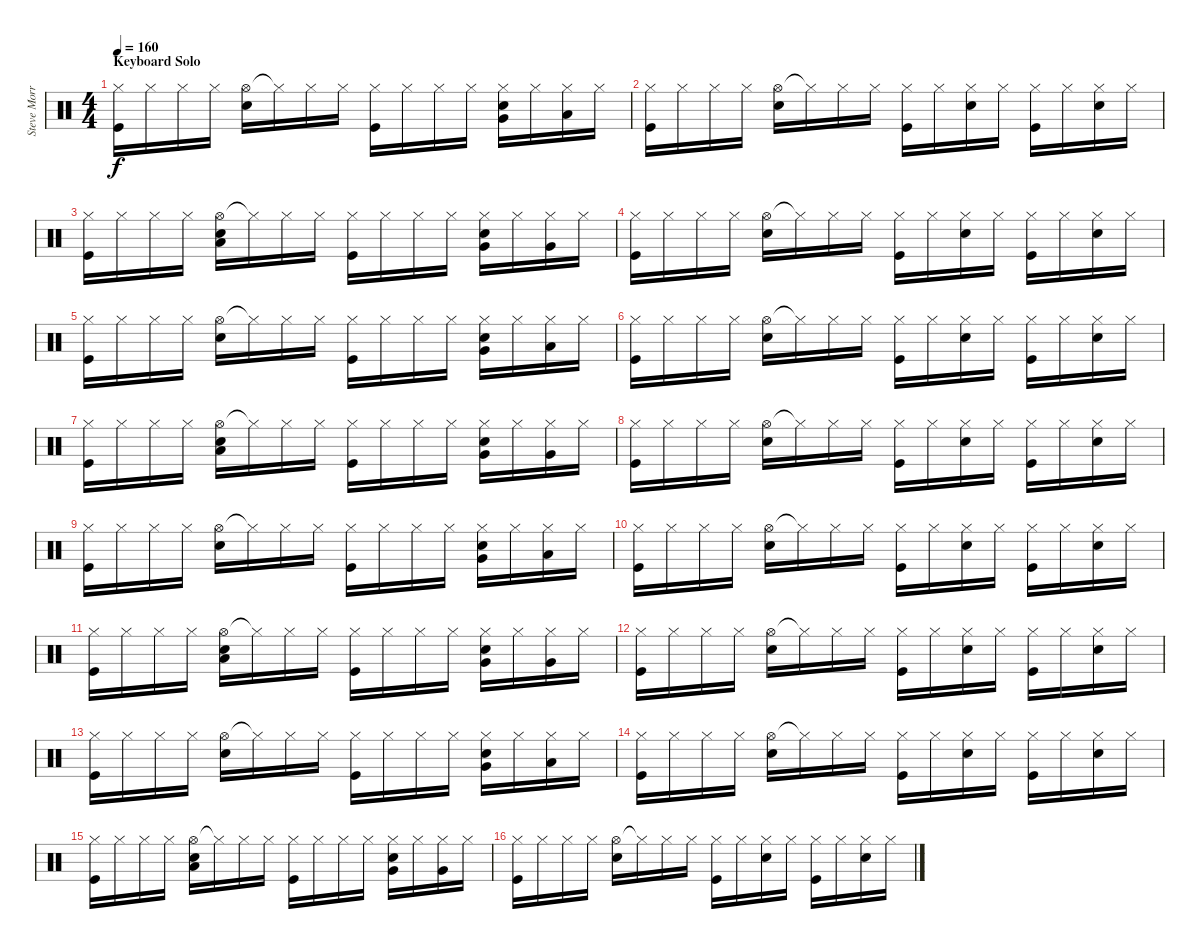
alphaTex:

\track ("Steve Morris" "Steve Morr") {instrument percussion}
\staff {score}
\articulation defaults
\ts (4 4)
\section ("" "Keyboard Solo")
\tempo 160
\clef neutral
\ks c
("Hi-Hat (closed)" "Kick (hit)").16{dy f} "Hi-Hat (closed)".16 "Hi-Hat (closed)".16 "Hi-Hat (closed)".16 ("Hi-Hat (open)" "Electric Snare (hit)").16 "Hi-Hat (closed)"{t}.16 "Hi-Hat (closed)".16 "Hi-Hat (closed)".16 ("Hi-Hat (closed)" "Kick (hit)").16 "Hi-Hat (closed)".16 "Hi-Hat (closed)".16 "Hi-Hat (closed)".16 ("Hi-Hat (closed)" "Very Low Tom (hit)" "Electric Snare (hit)").16 "Hi-Hat (closed)".16 ("Hi-Hat (closed)" "Low Tom (hit)").16 "Hi-Hat (closed)".16 |
("Hi-Hat (closed)" "Kick (hit)").16 "Hi-Hat (closed)".16 "Hi-Hat (closed)".16 "Hi-Hat (closed)".16 ("Hi-Hat (open)" "Electric Snare (hit)").16 "Hi-Hat (closed)"{t}.16 "Hi-Hat (closed)".16 "Hi-Hat (closed)".16 ("Hi-Hat (closed)" "Kick (hit)").16 "Hi-Hat (closed)".16 ("Hi-Hat (closed)" "Electric Snare (hit)").16 "Hi-Hat (closed)".16 ("Hi-Hat (closed)" "Kick (hit)").16 "Hi-Hat (closed)".16 ("Hi-Hat (closed)" "Electric Snare (hit)").16 "Hi-Hat (closed)".16 |
("Hi-Hat (closed)" "Kick (hit)").16 "Hi-Hat (closed)".16 "Hi-Hat (closed)".16 "Hi-Hat (closed)".16 ("Hi-Hat (open)" "Low Tom (hit)" "Electric Snare (hit)").16 "Hi-Hat (closed)"{t}.16 "Hi-Hat (closed)".16 "Hi-Hat (closed)".16 ("Hi-Hat (closed)" "Kick (hit)").16 "Hi-Hat (closed)".16 "Hi-Hat (closed)".16 "Hi-Hat (closed)".16 ("Hi-Hat (closed)" "Very Low Tom (hit)" "Electric Snare (hit)").16 "Hi-Hat (closed)".16 ("Hi-Hat (closed)" "Very Low Tom (hit)").16 "Hi-Hat (closed)".16 |
("Hi-Hat (closed)" "Kick (hit)").16 "Hi-Hat (closed)".16 "Hi-Hat (closed)".16 "Hi-Hat (closed)".16 ("Hi-Hat (open)" "Electric Snare (hit)").16 "Hi-Hat (closed)"{t}.16 "Hi-Hat (closed)".16 "Hi-Hat (closed)".16 ("Hi-Hat (closed)" "Kick (hit)").16 "Hi-Hat (closed)".16 ("Hi-Hat (closed)" "Electric Snare (hit)").16 "Hi-Hat (closed)".16 ("Hi-Hat (closed)" "Kick (hit)").16 "Hi-Hat (closed)".16 ("Hi-Hat (closed)" "Electric Snare (hit)").16 "Hi-Hat (closed)".16 |
("Hi-Hat (closed)" "Kick (hit)").16 "Hi-Hat (closed)".16 "Hi-Hat (closed)".16 "Hi-Hat (closed)".16 ("Hi-Hat (open)" "Electric Snare (hit)").16 "Hi-Hat (closed)"{t}.16 "Hi-Hat (closed)".16 "Hi-Hat (closed)".16 ("Hi-Hat (closed)" "Kick (hit)").16 "Hi-Hat (closed)".16 "Hi-Hat (closed)".16 "Hi-Hat (closed)".16 ("Hi-Hat (closed)" "Very Low Tom (hit)" "Electric Snare (hit)").16 "Hi-Hat (closed)".16 ("Hi-Hat (closed)" "Low Tom (hit)").16 "Hi-Hat (closed)".16 |
("Hi-Hat (closed)" "Kick (hit)").16 "Hi-Hat (closed)".16 "Hi-Hat (closed)".16 "Hi-Hat (closed)".16 ("Hi-Hat (open)" "Electric Snare (hit)").16 "Hi-Hat (closed)"{t}.16 "Hi-Hat (closed)".16 "Hi-Hat (closed)".16 ("Hi-Hat (closed)" "Kick (hit)").16 "Hi-Hat (closed)".16 ("Hi-Hat (closed)" "Electric Snare (hit)").16 "Hi-Hat (closed)".16 ("Hi-Hat (closed)" "Kick (hit)").16 "Hi-Hat (closed)".16 ("Hi-Hat (closed)" "Electric Snare (hit)").16 "Hi-Hat (closed)".16 |
("Hi-Hat (closed)" "Kick (hit)").16 "Hi-Hat (closed)".16 "Hi-Hat (closed)".16 "Hi-Hat (closed)".16 ("Hi-Hat (open)" "Low Tom (hit)" "Electric Snare (hit)").16 "Hi-Hat (closed)"{t}.16 "Hi-Hat (closed)".16 "Hi-Hat (closed)".16 ("Hi-Hat (closed)" "Kick (hit)").16 "Hi-Hat (closed)".16 "Hi-Hat (closed)".16 "Hi-Hat (closed)".16 ("Hi-Hat (closed)" "Very Low Tom (hit)" "Electric Snare (hit)").16 "Hi-Hat (closed)".16 ("Hi-Hat (closed)" "Very Low Tom (hit)").16 "Hi-Hat (closed)".16 |
("Hi-Hat (closed)" "Kick (hit)").16 "Hi-Hat (closed)".16 "Hi-Hat (closed)".16 "Hi-Hat (closed)".16 ("Hi-Hat (open)" "Electric Snare (hit)").16 "Hi-Hat (closed)"{t}.16 "Hi-Hat (closed)".16 "Hi-Hat (closed)".16 ("Hi-Hat (closed)" "Kick (hit)").16 "Hi-Hat (closed)".16 ("Hi-Hat (closed)" "Electric Snare (hit)").16 "Hi-Hat (closed)".16 ("Hi-Hat (closed)" "Kick (hit)").16 "Hi-Hat (closed)".16 ("Hi-Hat (closed)" "Electric Snare (hit)").16 "Hi-Hat (closed)".16 |
("Hi-Hat (closed)" "Kick (hit)").16 "Hi-Hat (closed)".16 "Hi-Hat (closed)".16 "Hi-Hat (closed)".16 ("Hi-Hat (open)" "Electric Snare (hit)").16 "Hi-Hat (closed)"{t}.16 "Hi-Hat (closed)".16 "Hi-Hat (closed)".16 ("Hi-Hat (closed)" "Kick (hit)").16 "Hi-Hat (closed)".16 "Hi-Hat (closed)".16 "Hi-Hat (closed)".16 ("Hi-Hat (closed)" "Very Low Tom (hit)" "Electric Snare (hit)").16 "Hi-Hat (closed)".16 ("Hi-Hat (closed)" "Low Tom (hit)").16 "Hi-Hat (closed)".16 |
("Hi-Hat (closed)" "Kick (hit)").16 "Hi-Hat (closed)".16 "Hi-Hat (closed)".16 "Hi-Hat (closed)".16 ("Hi-Hat (open)" "Electric Snare (hit)").16 "Hi-Hat (closed)"{t}.16 "Hi-Hat (closed)".16 "Hi-Hat (closed)".16 ("Hi-Hat (closed)" "Kick (hit)").16 "Hi-Hat (closed)".16 ("Hi-Hat (closed)" "Electric Snare (hit)").16 "Hi-Hat (closed)".16 ("Hi-Hat (closed)" "Kick (hit)").16 "Hi-Hat (closed)".16 ("Hi-Hat (closed)" "Electric Snare (hit)").16 "Hi-Hat (closed)".16 |
("Hi-Hat (closed)" "Kick (hit)").16 "Hi-Hat (closed)".16 "Hi-Hat (closed)".16 "Hi-Hat (closed)".16 ("Hi-Hat (open)" "Low Tom (hit)" "Electric Snare (hit)").16 "Hi-Hat (closed)"{t}.16 "Hi-Hat (closed)".16 "Hi-Hat (closed)".16 ("Hi-Hat (closed)" "Kick (hit)").16 "Hi-Hat (closed)".16 "Hi-Hat (closed)".16 "Hi-Hat (closed)".16 ("Hi-Hat (closed)" "Very Low Tom (hit)" "Electric Snare (hit)").16 "Hi-Hat (closed)".16 ("Hi-Hat (closed)" "Very Low Tom (hit)").16 "Hi-Hat (closed)".16 |
("Hi-Hat (closed)" "Kick (hit)").16 "Hi-Hat (closed)".16 "Hi-Hat (closed)".16 "Hi-Hat (closed)".16 ("Hi-Hat (open)" "Electric Snare (hit)").16 "Hi-Hat (closed)"{t}.16 "Hi-Hat (closed)".16 "Hi-Hat (closed)".16 ("Hi-Hat (closed)" "Kick (hit)").16 "Hi-Hat (closed)".16 ("Hi-Hat (closed)" "Electric Snare (hit)").16 "Hi-Hat (closed)".16 ("Hi-Hat (closed)" "Kick (hit)").16 "Hi-Hat (closed)".16 ("Hi-Hat (closed)" "Electric Snare (hit)").16 "Hi-Hat (closed)".16 |
("Hi-Hat (closed)" "Kick (hit)").16 "Hi-Hat (closed)".16 "Hi-Hat (closed)".16 "Hi-Hat (closed)".16 ("Hi-Hat (open)" "Electric Snare (hit)").16 "Hi-Hat (closed)"{t}.16 "Hi-Hat (closed)".16 "Hi-Hat (closed)".16 ("Hi-Hat (closed)" "Kick (hit)").16 "Hi-Hat (closed)".16 "Hi-Hat (closed)".16 "Hi-Hat (closed)".16 ("Hi-Hat (closed)" "Very Low Tom (hit)" "Electric Snare (hit)").16 "Hi-Hat (closed)".16 ("Hi-Hat (closed)" "Low Tom (hit)").16 "Hi-Hat (closed)".16 |
("Hi-Hat (closed)" "Kick (hit)").16 "Hi-Hat (closed)".16 "Hi-Hat (closed)".16 "Hi-Hat (closed)".16 ("Hi-Hat (open)" "Electric Snare (hit)").16 "Hi-Hat (closed)"{t}.16 "Hi-Hat (closed)".16 "Hi-Hat (closed)".16 ("Hi-Hat (closed)" "Kick (hit)").16 "Hi-Hat (closed)".16 ("Hi-Hat (closed)" "Electric Snare (hit)").16 "Hi-Hat (closed)".16 ("Hi-Hat (closed)" "Kick (hit)").16 "Hi-Hat (closed)".16 ("Hi-Hat (closed)" "Electric Snare (hit)").16 "Hi-Hat (closed)".16 |
("Hi-Hat (closed)" "Kick (hit)").16 "Hi-Hat (closed)".16 "Hi-Hat (closed)".16 "Hi-Hat (closed)".16 ("Hi-Hat (open)" "Low Tom (hit)" "Electric Snare (hit)").16 "Hi-Hat (closed)"{t}.16 "Hi-Hat (closed)".16 "Hi-Hat (closed)".16 ("Hi-Hat (closed)" "Kick (hit)").16 "Hi-Hat (closed)".16 "Hi-Hat (closed)".16 "Hi-Hat (closed)".16 ("Hi-Hat (closed)" "Very Low Tom (hit)" "Electric Snare (hit)").16 "Hi-Hat (closed)".16 ("Hi-Hat (closed)" "Very Low Tom (hit)").16 "Hi-Hat (closed)".16 |
("Hi-Hat (closed)" "Kick (hit)").16 "Hi-Hat (closed)".16 "Hi-Hat (closed)".16 "Hi-Hat (closed)".16 ("Hi-Hat (open)" "Electric Snare (hit)").16 "Hi-Hat (closed)"{t}.16 "Hi-Hat (closed)".16 "Hi-Hat (closed)".16 ("Hi-Hat (closed)" "Kick (hit)").16 "Hi-Hat (closed)".16 ("Hi-Hat (closed)" "Electric Snare (hit)").16 "Hi-Hat (closed)".16 ("Hi-Hat (closed)" "Kick (hit)").16 "Hi-Hat (closed)".16 ("Hi-Hat (closed)" "Electric Snare (hit)").16 "Hi-Hat (closed)".16
